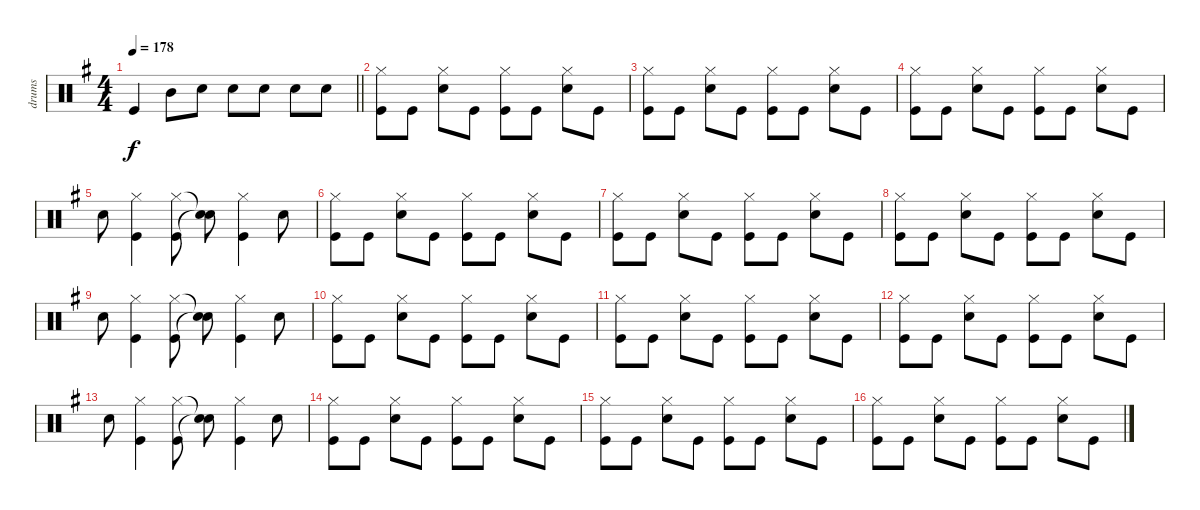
\track ("drums" "drums") {instrument percussion}
\staff {score}
\articulation defaults
\ts (4 4)
\tempo 178
\clef neutral
\barLineRight lightlight
\ks eminor "Kick (hit)".4{dy f} "Mid Tom (hit)".8 "Snare (hit) 2".8 "Snare (hit) 2".8 "Snare (hit) 2".8 "Snare (hit) 2".8 "Snare (hit) 2".8
|
("Hi-Hat (closed)" "Kick (hit)").8 "Kick (hit)".8 ("Hi-Hat (closed)" "Snare (hit) 2").8 "Kick (hit)".8 ("Hi-Hat (closed)" "Kick (hit)").8 "Kick (hit)".8 ("Hi-Hat (closed)" "Snare (hit) 2").8 "Kick (hit)".8 |
("Hi-Hat (closed)" "Kick (hit)").8 "Kick (hit)".8 ("Hi-Hat (closed)" "Snare (hit) 2").8 "Kick (hit)".8 ("Hi-Hat (closed)" "Kick (hit)").8 "Kick (hit)".8 ("Hi-Hat (closed)" "Snare (hit) 2").8 "Kick (hit)".8 |
("Hi-Hat (closed)" "Kick (hit)").8 "Kick (hit)".8 ("Hi-Hat (closed)" "Snare (hit) 2").8 "Kick (hit)".8 ("Hi-Hat (closed)" "Kick (hit)").8 "Kick (hit)".8 ("Hi-Hat (closed)" "Snare (hit) 2").8 "Kick (hit)".8 |
"Snare (hit) 2".8 ("Hi-Hat (closed)" "Kick (hit)").4 ("Hi-Hat (closed)" "Kick (hit)").8 ("Snare (hit)"{t} "Snare (hit)"{t}).8 ("Hi-Hat (closed)" "Kick (hit)").4 "Snare (hit) 2".8 |
("Hi-Hat (closed)" "Kick (hit)").8 "Kick (hit)".8 ("Hi-Hat (closed)" "Snare (hit) 2").8 "Kick (hit)".8 ("Hi-Hat (closed)" "Kick (hit)").8 "Kick (hit)".8 ("Hi-Hat (closed)" "Snare (hit) 2").8 "Kick (hit)".8 |
("Hi-Hat (closed)" "Kick (hit)").8 "Kick (hit)".8 ("Hi-Hat (closed)" "Snare (hit) 2").8 "Kick (hit)".8 ("Hi-Hat (closed)" "Kick (hit)").8 "Kick (hit)".8 ("Hi-Hat (closed)" "Snare (hit) 2").8 "Kick (hit)".8 |
("Hi-Hat (closed)" "Kick (hit)").8 "Kick (hit)".8 ("Hi-Hat (closed)" "Snare (hit) 2").8 "Kick (hit)".8 ("Hi-Hat (closed)" "Kick (hit)").8 "Kick (hit)".8 ("Hi-Hat (closed)" "Snare (hit) 2").8 "Kick (hit)".8 |
"Snare (hit) 2".8 ("Hi-Hat (closed)" "Kick (hit)").4 ("Hi-Hat (closed)" "Kick (hit)").8 ("Snare (hit)"{t} "Snare (hit)"{t}).8 ("Hi-Hat (closed)" "Kick (hit)").4 "Snare (hit) 2".8 |
("Hi-Hat (closed)" "Kick (hit)").8 "Kick (hit)".8 ("Hi-Hat (closed)" "Snare (hit) 2").8 "Kick (hit)".8 ("Hi-Hat (closed)" "Kick (hit)").8 "Kick (hit)".8 ("Hi-Hat (closed)" "Snare (hit) 2").8 "Kick (hit)".8 |
("Hi-Hat (closed)" "Kick (hit)").8 "Kick (hit)".8 ("Hi-Hat (closed)" "Snare (hit) 2").8 "Kick (hit)".8 ("Hi-Hat (closed)" "Kick (hit)").8 "Kick (hit)".8 ("Hi-Hat (closed)" "Snare (hit) 2").8 "Kick (hit)".8 |
("Hi-Hat (closed)" "Kick (hit)").8 "Kick (hit)".8 ("Hi-Hat (closed)" "Snare (hit) 2").8 "Kick (hit)".8 ("Hi-Hat (closed)" "Kick (hit)").8 "Kick (hit)".8 ("Hi-Hat (closed)" "Snare (hit) 2").8 "Kick (hit)".8 |
"Snare (hit) 2".8 ("Hi-Hat (closed)" "Kick (hit)").4 ("Hi-Hat (closed)" "Kick (hit)").8 ("Snare (hit)"{t} "Snare (hit)"{t}).8 ("Hi-Hat (closed)" "Kick (hit)").4 "Snare (hit) 2".8 |
("Hi-Hat (closed)" "Kick (hit)").8 "Kick (hit)".8 ("Hi-Hat (closed)" "Snare (hit) 2").8 "Kick (hit)".8 ("Hi-Hat (closed)" "Kick (hit)").8 "Kick (hit)".8 ("Hi-Hat (closed)" "Snare (hit) 2").8 "Kick (hit)".8 |
("Hi-Hat (closed)" "Kick (hit)").8 "Kick (hit)".8 ("Hi-Hat (closed)" "Snare (hit) 2").8 "Kick (hit)".8 ("Hi-Hat (closed)" "Kick (hit)").8 "Kick (hit)".8 ("Hi-Hat (closed)" "Snare (hit) 2").8 "Kick (hit)".8 |
("Hi-Hat (closed)" "Kick (hit)").8 "Kick (hit)".8 ("Hi-Hat (closed)" "Snare (hit) 2").8 "Kick (hit)".8 ("Hi-Hat (closed)" "Kick (hit)").8 "Kick (hit)".8 ("Hi-Hat (closed)" "Snare (hit) 2").8 "Kick (hit)".8
